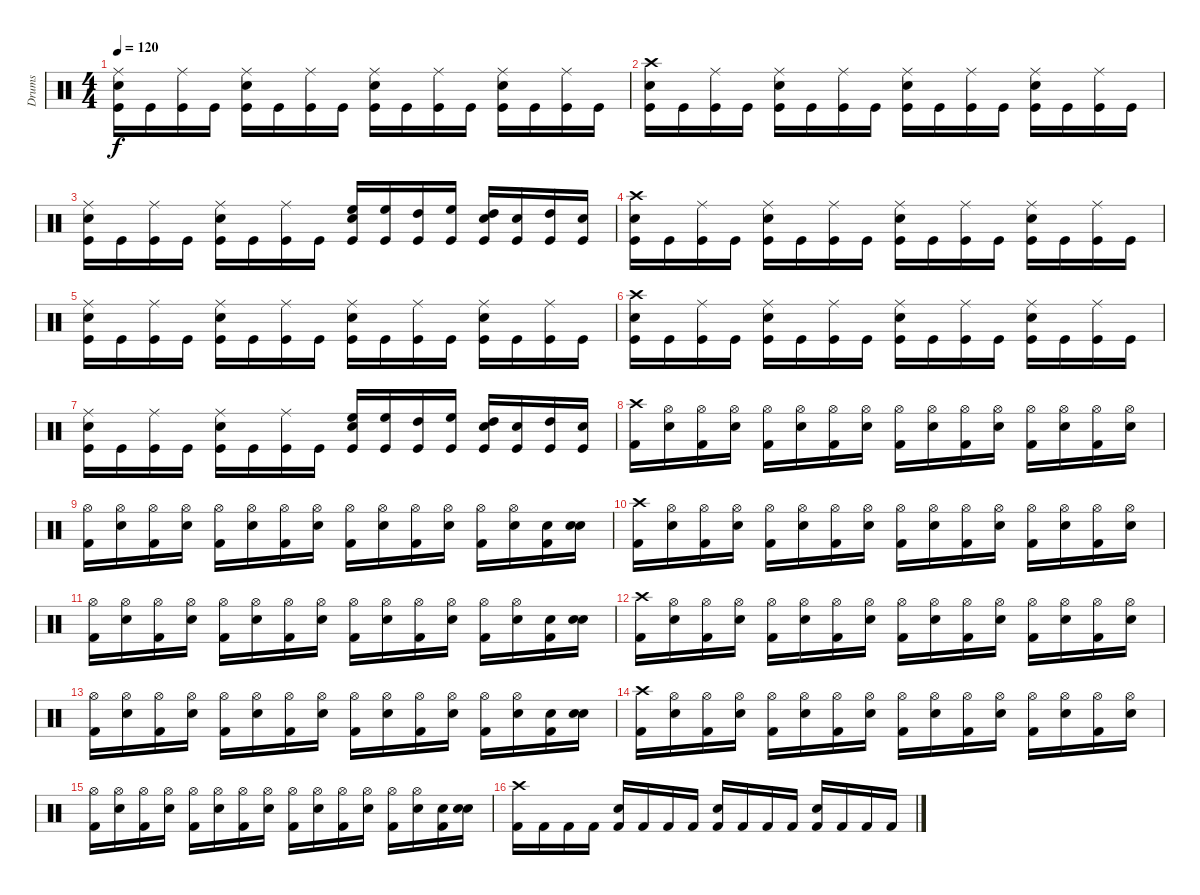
\track ("Drums" "Drums") {instrument percussion}
\staff {score}
\articulation defaults
\ts (4 4)
\tempo 120
\clef neutral
\ks c
("Ride (middle)" "Snare (hit) 2" "Kick (hit)").16{dy f} "Kick (hit)".16 ("Ride (middle)" "Kick (hit)").16 "Kick (hit)".16 ("Ride (middle)" "Snare (hit) 2" "Kick (hit)").16 "Kick (hit)".16 ("Ride (middle)" "Kick (hit)").16 "Kick (hit)".16 ("Ride (middle)" "Snare (hit) 2" "Kick (hit)").16 "Kick (hit)".16 ("Ride (middle)" "Kick (hit)").16 "Kick (hit)".16 ("Ride (middle)" "Snare (hit) 2" "Kick (hit)").16 "Kick (hit)".16 ("Ride (middle)" "Kick (hit)").16 "Kick (hit)".16 |
("Crash high (hit)" "Snare (hit) 2" "Kick (hit)").16 "Kick (hit)".16 ("Ride (middle)" "Kick (hit)").16 "Kick (hit)".16 ("Ride (middle)" "Snare (hit) 2" "Kick (hit)").16 "Kick (hit)".16 ("Ride (middle)" "Kick (hit)").16 "Kick (hit)".16 ("Ride (middle)" "Snare (hit) 2" "Kick (hit)").16 "Kick (hit)".16 ("Ride (middle)" "Kick (hit)").16 "Kick (hit)".16 ("Ride (middle)" "Snare (hit) 2" "Kick (hit)").16 "Kick (hit)".16 ("Ride (middle)" "Kick (hit)").16 "Kick (hit)".16 |
("Ride (middle)" "Snare (hit) 2" "Kick (hit)").16 "Kick (hit)".16 ("Ride (middle)" "Kick (hit)").16 "Kick (hit)".16 ("Ride (middle)" "Snare (hit) 2" "Kick (hit)").16 "Kick (hit)".16 ("Ride (middle)" "Kick (hit)").16 "Kick (hit)".16 ("High Floor Tom (hit)" "Snare (hit) 2" "Kick (hit)").16 ("High Floor Tom (hit)" "Kick (hit)").16 ("High Tom (hit)" "Kick (hit)").16 ("High Floor Tom (hit)" "Kick (hit)").16 ("High Tom (hit)" "Snare (hit) 2" "Kick (hit)").16 ("Snare (hit) 2" "Kick (hit)").16 ("High Tom (hit)" "Kick (hit)").16 ("Snare (hit) 2" "Kick (hit)").16 |
("Crash high (hit)" "Snare (hit) 2" "Kick (hit)").16 "Kick (hit)".16 ("Ride (middle)" "Kick (hit)").16 "Kick (hit)".16 ("Ride (middle)" "Snare (hit) 2" "Kick (hit)").16 "Kick (hit)".16 ("Ride (middle)" "Kick (hit)").16 "Kick (hit)".16 ("Ride (middle)" "Snare (hit) 2" "Kick (hit)").16 "Kick (hit)".16 ("Ride (middle)" "Kick (hit)").16 "Kick (hit)".16 ("Ride (middle)" "Snare (hit) 2" "Kick (hit)").16 "Kick (hit)".16 ("Ride (middle)" "Kick (hit)").16 "Kick (hit)".16 |
("Ride (middle)" "Snare (hit) 2" "Kick (hit)").16 "Kick (hit)".16 ("Ride (middle)" "Kick (hit)").16 "Kick (hit)".16 ("Ride (middle)" "Snare (hit) 2" "Kick (hit)").16 "Kick (hit)".16 ("Ride (middle)" "Kick (hit)").16 "Kick (hit)".16 ("Ride (middle)" "Snare (hit) 2" "Kick (hit)").16 "Kick (hit)".16 ("Ride (middle)" "Kick (hit)").16 "Kick (hit)".16 ("Ride (middle)" "Snare (hit) 2" "Kick (hit)").16 "Kick (hit)".16 ("Ride (middle)" "Kick (hit)").16 "Kick (hit)".16 |
("Crash high (hit)" "Snare (hit) 2" "Kick (hit)").16 "Kick (hit)".16 ("Ride (middle)" "Kick (hit)").16 "Kick (hit)".16 ("Ride (middle)" "Snare (hit) 2" "Kick (hit)").16 "Kick (hit)".16 ("Ride (middle)" "Kick (hit)").16 "Kick (hit)".16 ("Ride (middle)" "Snare (hit) 2" "Kick (hit)").16 "Kick (hit)".16 ("Ride (middle)" "Kick (hit)").16 "Kick (hit)".16 ("Ride (middle)" "Snare (hit) 2" "Kick (hit)").16 "Kick (hit)".16 ("Ride (middle)" "Kick (hit)").16 "Kick (hit)".16 |
("Ride (middle)" "Snare (hit) 2" "Kick (hit)").16 "Kick (hit)".16 ("Ride (middle)" "Kick (hit)").16 "Kick (hit)".16 ("Ride (middle)" "Snare (hit) 2" "Kick (hit)").16 "Kick (hit)".16 ("Ride (middle)" "Kick (hit)").16 "Kick (hit)".16 ("High Floor Tom (hit)" "Snare (hit) 2" "Kick (hit)").16 ("High Floor Tom (hit)" "Kick (hit)").16 ("High Tom (hit)" "Kick (hit)").16 ("High Floor Tom (hit)" "Kick (hit)").16 ("High Tom (hit)" "Snare (hit) 2" "Kick (hit)").16 ("Snare (hit) 2" "Kick (hit)").16 ("High Tom (hit)" "Kick (hit)").16 ("Snare (hit) 2" "Kick (hit)").16 |
("Crash high (hit)" "Kick (hit) 2").16 ("Hi-Hat (open)" "Snare (hit) 2").16 ("Hi-Hat (open)" "Kick (hit) 2").16 ("Hi-Hat (open)" "Snare (hit) 2").16 ("Hi-Hat (open)" "Kick (hit) 2").16 ("Hi-Hat (open)" "Snare (hit) 2").16 ("Hi-Hat (open)" "Kick (hit) 2").16 ("Hi-Hat (open)" "Snare (hit) 2").16 ("Hi-Hat (open)" "Kick (hit) 2").16 ("Hi-Hat (open)" "Snare (hit) 2").16 ("Hi-Hat (open)" "Kick (hit) 2").16 ("Hi-Hat (open)" "Snare (hit) 2").16 ("Hi-Hat (open)" "Kick (hit) 2").16 ("Hi-Hat (open)" "Snare (hit) 2").16 ("Hi-Hat (open)" "Kick (hit) 2").16 ("Hi-Hat (open)" "Snare (hit) 2").16 |
("Hi-Hat (open)" "Kick (hit) 2").16 ("Hi-Hat (open)" "Snare (hit) 2").16 ("Hi-Hat (open)" "Kick (hit) 2").16 ("Hi-Hat (open)" "Snare (hit) 2").16 ("Hi-Hat (open)" "Kick (hit) 2").16 ("Hi-Hat (open)" "Snare (hit) 2").16 ("Hi-Hat (open)" "Kick (hit) 2").16 ("Hi-Hat (open)" "Snare (hit) 2").16 ("Hi-Hat (open)" "Kick (hit) 2").16 ("Hi-Hat (open)" "Snare (hit) 2").16 ("Hi-Hat (open)" "Kick (hit) 2").16 ("Hi-Hat (open)" "Snare (hit) 2").16 ("Hi-Hat (open)" "Kick (hit) 2").16 ("Hi-Hat (open)" "Snare (hit) 2").16 ("Snare (hit) 2" "Kick (hit) 2").16 ("Snare (hit) 2" "Snare (hit) 2").16 |
("Crash high (hit)" "Kick (hit) 2").16 ("Hi-Hat (open)" "Snare (hit) 2").16 ("Hi-Hat (open)" "Kick (hit) 2").16 ("Hi-Hat (open)" "Snare (hit) 2").16 ("Hi-Hat (open)" "Kick (hit) 2").16 ("Hi-Hat (open)" "Snare (hit) 2").16 ("Hi-Hat (open)" "Kick (hit) 2").16 ("Hi-Hat (open)" "Snare (hit) 2").16 ("Hi-Hat (open)" "Kick (hit) 2").16 ("Hi-Hat (open)" "Snare (hit) 2").16 ("Hi-Hat (open)" "Kick (hit) 2").16 ("Hi-Hat (open)" "Snare (hit) 2").16 ("Hi-Hat (open)" "Kick (hit) 2").16 ("Hi-Hat (open)" "Snare (hit) 2").16 ("Hi-Hat (open)" "Kick (hit) 2").16 ("Hi-Hat (open)" "Snare (hit) 2").16 |
("Hi-Hat (open)" "Kick (hit) 2").16 ("Hi-Hat (open)" "Snare (hit) 2").16 ("Hi-Hat (open)" "Kick (hit) 2").16 ("Hi-Hat (open)" "Snare (hit) 2").16 ("Hi-Hat (open)" "Kick (hit) 2").16 ("Hi-Hat (open)" "Snare (hit) 2").16 ("Hi-Hat (open)" "Kick (hit) 2").16 ("Hi-Hat (open)" "Snare (hit) 2").16 ("Hi-Hat (open)" "Kick (hit) 2").16 ("Hi-Hat (open)" "Snare (hit) 2").16 ("Hi-Hat (open)" "Kick (hit) 2").16 ("Hi-Hat (open)" "Snare (hit) 2").16 ("Hi-Hat (open)" "Kick (hit) 2").16 ("Hi-Hat (open)" "Snare (hit) 2").16 ("Snare (hit) 2" "Kick (hit) 2").16 ("Snare (hit) 2" "Snare (hit) 2").16 |
("Crash high (hit)" "Kick (hit) 2").16 ("Hi-Hat (open)" "Snare (hit) 2").16 ("Hi-Hat (open)" "Kick (hit) 2").16 ("Hi-Hat (open)" "Snare (hit) 2").16 ("Hi-Hat (open)" "Kick (hit) 2").16 ("Hi-Hat (open)" "Snare (hit) 2").16 ("Hi-Hat (open)" "Kick (hit) 2").16 ("Hi-Hat (open)" "Snare (hit) 2").16 ("Hi-Hat (open)" "Kick (hit) 2").16 ("Hi-Hat (open)" "Snare (hit) 2").16 ("Hi-Hat (open)" "Kick (hit) 2").16 ("Hi-Hat (open)" "Snare (hit) 2").16 ("Hi-Hat (open)" "Kick (hit) 2").16 ("Hi-Hat (open)" "Snare (hit) 2").16 ("Hi-Hat (open)" "Kick (hit) 2").16 ("Hi-Hat (open)" "Snare (hit) 2").16 |
("Hi-Hat (open)" "Kick (hit) 2").16 ("Hi-Hat (open)" "Snare (hit) 2").16 ("Hi-Hat (open)" "Kick (hit) 2").16 ("Hi-Hat (open)" "Snare (hit) 2").16 ("Hi-Hat (open)" "Kick (hit) 2").16 ("Hi-Hat (open)" "Snare (hit) 2").16 ("Hi-Hat (open)" "Kick (hit) 2").16 ("Hi-Hat (open)" "Snare (hit) 2").16 ("Hi-Hat (open)" "Kick (hit) 2").16 ("Hi-Hat (open)" "Snare (hit) 2").16 ("Hi-Hat (open)" "Kick (hit) 2").16 ("Hi-Hat (open)" "Snare (hit) 2").16 ("Hi-Hat (open)" "Kick (hit) 2").16 ("Hi-Hat (open)" "Snare (hit) 2").16 ("Snare (hit) 2" "Kick (hit) 2").16 ("Snare (hit) 2" "Snare (hit) 2").16 |
("Crash high (hit)" "Kick (hit) 2").16 ("Hi-Hat (open)" "Snare (hit) 2").16 ("Hi-Hat (open)" "Kick (hit) 2").16 ("Hi-Hat (open)" "Snare (hit) 2").16 ("Hi-Hat (open)" "Kick (hit) 2").16 ("Hi-Hat (open)" "Snare (hit) 2").16 ("Hi-Hat (open)" "Kick (hit) 2").16 ("Hi-Hat (open)" "Snare (hit) 2").16 ("Hi-Hat (open)" "Kick (hit) 2").16 ("Hi-Hat (open)" "Snare (hit) 2").16 ("Hi-Hat (open)" "Kick (hit) 2").16 ("Hi-Hat (open)" "Snare (hit) 2").16 ("Hi-Hat (open)" "Kick (hit) 2").16 ("Hi-Hat (open)" "Snare (hit) 2").16 ("Hi-Hat (open)" "Kick (hit) 2").16 ("Hi-Hat (open)" "Snare (hit) 2").16 |
("Hi-Hat (open)" "Kick (hit) 2").16 ("Hi-Hat (open)" "Snare (hit) 2").16 ("Hi-Hat (open)" "Kick (hit) 2").16 ("Hi-Hat (open)" "Snare (hit) 2").16 ("Hi-Hat (open)" "Kick (hit) 2").16 ("Hi-Hat (open)" "Snare (hit) 2").16 ("Hi-Hat (open)" "Kick (hit) 2").16 ("Hi-Hat (open)" "Snare (hit) 2").16 ("Hi-Hat (open)" "Kick (hit) 2").16 ("Hi-Hat (open)" "Snare (hit) 2").16 ("Hi-Hat (open)" "Kick (hit) 2").16 ("Hi-Hat (open)" "Snare (hit) 2").16 ("Hi-Hat (open)" "Kick (hit) 2").16 ("Hi-Hat (open)" "Snare (hit) 2").16 ("Snare (hit) 2" "Kick (hit) 2").16 ("Snare (hit) 2" "Snare (hit) 2").16 |
("Crash high (hit)" "Kick (hit) 2").16 "Kick (hit) 2".16 "Kick (hit) 2".16 "Kick (hit) 2".16 ("Snare (hit) 2" "Kick (hit) 2").16 "Kick (hit) 2".16 "Kick (hit) 2".16 "Kick (hit) 2".16 ("Snare (hit) 2" "Kick (hit) 2").16 "Kick (hit) 2".16 "Kick (hit) 2".16 "Kick (hit) 2".16 ("Snare (hit) 2" "Kick (hit) 2").16 "Kick (hit) 2".16 "Kick (hit) 2".16 "Kick (hit) 2".16
